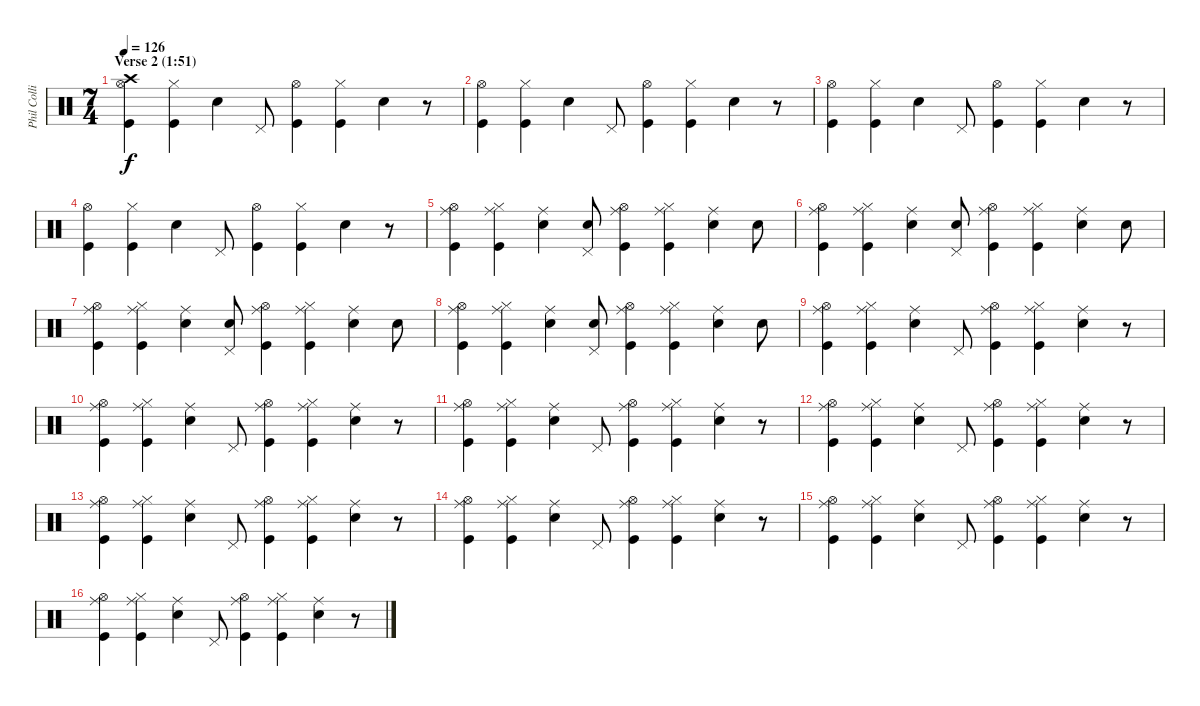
\track ("Phil Collins (drums)" "Phil Colli") {instrument percussion}
\staff {score}
\articulation defaults
\ts (7 4)
\section ("" "Verse 2 (1:51)")
\tempo 126
\clef neutral
\ks c
("Crash high (hit)" "Hi-Hat (open)" "Kick (hit)").4{dy f} ("Hi-Hat (closed)" "Kick (hit)").4 "Snare (hit) 2".4 "Pedal Hi-Hat (hit)".8 ("Hi-Hat (open)" "Kick (hit)").4 ("Hi-Hat (closed)" "Kick (hit)").4 "Snare (hit) 2".4 r.8 |
("Hi-Hat (open)" "Kick (hit)").4 ("Hi-Hat (closed)" "Kick (hit)").4 "Snare (hit) 2".4 "Pedal Hi-Hat (hit)".8 ("Hi-Hat (open)" "Kick (hit)").4 ("Hi-Hat (closed)" "Kick (hit)").4 "Snare (hit) 2".4 r.8 |
("Hi-Hat (open)" "Kick (hit)").4 ("Hi-Hat (closed)" "Kick (hit)").4 "Snare (hit) 2".4 "Pedal Hi-Hat (hit)".8 ("Hi-Hat (open)" "Kick (hit)").4 ("Hi-Hat (closed)" "Kick (hit)").4 "Snare (hit) 2".4 r.8 |
("Hi-Hat (open)" "Kick (hit)").4 ("Hi-Hat (closed)" "Kick (hit)").4 "Snare (hit) 2".4 "Pedal Hi-Hat (hit)".8 ("Hi-Hat (open)" "Kick (hit)").4 ("Hi-Hat (closed)" "Kick (hit)").4 "Snare (hit) 2".4 r.8 |
("Ride (middle)" "Hi-Hat (open)" "Kick (hit)").4 ("Ride (middle)" "Hi-Hat (closed)" "Kick (hit)").4 ("Ride (middle)" "Snare (hit) 2").4 ("Pedal Hi-Hat (hit)" "Snare (hit) 2").8 ("Ride (middle)" "Hi-Hat (open)" "Kick (hit)").4 ("Ride (middle)" "Hi-Hat (closed)" "Kick (hit)").4 ("Ride (middle)" "Snare (hit) 2").4 "Snare (hit) 2".8 |
("Ride (middle)" "Hi-Hat (open)" "Kick (hit)").4 ("Ride (middle)" "Hi-Hat (closed)" "Kick (hit)").4 ("Ride (middle)" "Snare (hit) 2").4 ("Pedal Hi-Hat (hit)" "Snare (hit) 2").8 ("Ride (middle)" "Hi-Hat (open)" "Kick (hit)").4 ("Ride (middle)" "Hi-Hat (closed)" "Kick (hit)").4 ("Ride (middle)" "Snare (hit) 2").4 "Snare (hit) 2".8 |
("Ride (middle)" "Hi-Hat (open)" "Kick (hit)").4 ("Ride (middle)" "Hi-Hat (closed)" "Kick (hit)").4 ("Ride (middle)" "Snare (hit) 2").4 ("Pedal Hi-Hat (hit)" "Snare (hit) 2").8 ("Ride (middle)" "Hi-Hat (open)" "Kick (hit)").4 ("Ride (middle)" "Hi-Hat (closed)" "Kick (hit)").4 ("Ride (middle)" "Snare (hit) 2").4 "Snare (hit) 2".8 |
("Ride (middle)" "Hi-Hat (open)" "Kick (hit)").4 ("Ride (middle)" "Hi-Hat (closed)" "Kick (hit)").4 ("Ride (middle)" "Snare (hit) 2").4 ("Pedal Hi-Hat (hit)" "Snare (hit) 2").8 ("Ride (middle)" "Hi-Hat (open)" "Kick (hit)").4 ("Ride (middle)" "Hi-Hat (closed)" "Kick (hit)").4 ("Ride (middle)" "Snare (hit) 2").4 "Snare (hit) 2".8 |
("Ride (middle)" "Hi-Hat (open)" "Kick (hit)").4 ("Ride (middle)" "Hi-Hat (closed)" "Kick (hit)").4 ("Ride (middle)" "Snare (hit) 2").4 "Pedal Hi-Hat (hit)".8 ("Ride (middle)" "Hi-Hat (open)" "Kick (hit)").4 ("Ride (middle)" "Hi-Hat (closed)" "Kick (hit)").4 ("Ride (middle)" "Snare (hit) 2").4 r.8 |
("Ride (middle)" "Hi-Hat (open)" "Kick (hit)").4 ("Ride (middle)" "Hi-Hat (closed)" "Kick (hit)").4 ("Ride (middle)" "Snare (hit) 2").4 "Pedal Hi-Hat (hit)".8 ("Ride (middle)" "Hi-Hat (open)" "Kick (hit)").4 ("Ride (middle)" "Hi-Hat (closed)" "Kick (hit)").4 ("Ride (middle)" "Snare (hit) 2").4 r.8 |
("Ride (middle)" "Hi-Hat (open)" "Kick (hit)").4 ("Ride (middle)" "Hi-Hat (closed)" "Kick (hit)").4 ("Ride (middle)" "Snare (hit) 2").4 "Pedal Hi-Hat (hit)".8 ("Ride (middle)" "Hi-Hat (open)" "Kick (hit)").4 ("Ride (middle)" "Hi-Hat (closed)" "Kick (hit)").4 ("Ride (middle)" "Snare (hit) 2").4 r.8 |
("Ride (middle)" "Hi-Hat (open)" "Kick (hit)").4 ("Ride (middle)" "Hi-Hat (closed)" "Kick (hit)").4 ("Ride (middle)" "Snare (hit) 2").4 "Pedal Hi-Hat (hit)".8 ("Ride (middle)" "Hi-Hat (open)" "Kick (hit)").4 ("Ride (middle)" "Hi-Hat (closed)" "Kick (hit)").4 ("Ride (middle)" "Snare (hit) 2").4 r.8 |
("Ride (middle)" "Hi-Hat (open)" "Kick (hit)").4 ("Ride (middle)" "Hi-Hat (closed)" "Kick (hit)").4 ("Ride (middle)" "Snare (hit) 2").4 "Pedal Hi-Hat (hit)".8 ("Ride (middle)" "Hi-Hat (open)" "Kick (hit)").4 ("Ride (middle)" "Hi-Hat (closed)" "Kick (hit)").4 ("Ride (middle)" "Snare (hit) 2").4 r.8 |
("Ride (middle)" "Hi-Hat (open)" "Kick (hit)").4 ("Ride (middle)" "Hi-Hat (closed)" "Kick (hit)").4 ("Ride (middle)" "Snare (hit) 2").4 "Pedal Hi-Hat (hit)".8 ("Ride (middle)" "Hi-Hat (open)" "Kick (hit)").4 ("Ride (middle)" "Hi-Hat (closed)" "Kick (hit)").4 ("Ride (middle)" "Snare (hit) 2").4 r.8 |
("Ride (middle)" "Hi-Hat (open)" "Kick (hit)").4 ("Ride (middle)" "Hi-Hat (closed)" "Kick (hit)").4 ("Ride (middle)" "Snare (hit) 2").4 "Pedal Hi-Hat (hit)".8 ("Ride (middle)" "Hi-Hat (open)" "Kick (hit)").4 ("Ride (middle)" "Hi-Hat (closed)" "Kick (hit)").4 ("Ride (middle)" "Snare (hit) 2").4 r.8 |
("Ride (middle)" "Hi-Hat (open)" "Kick (hit)").4 ("Ride (middle)" "Hi-Hat (closed)" "Kick (hit)").4 ("Ride (middle)" "Snare (hit) 2").4 "Pedal Hi-Hat (hit)".8 ("Ride (middle)" "Hi-Hat (open)" "Kick (hit)").4 ("Ride (middle)" "Hi-Hat (closed)" "Kick (hit)").4 ("Ride (middle)" "Snare (hit) 2").4 r.8
